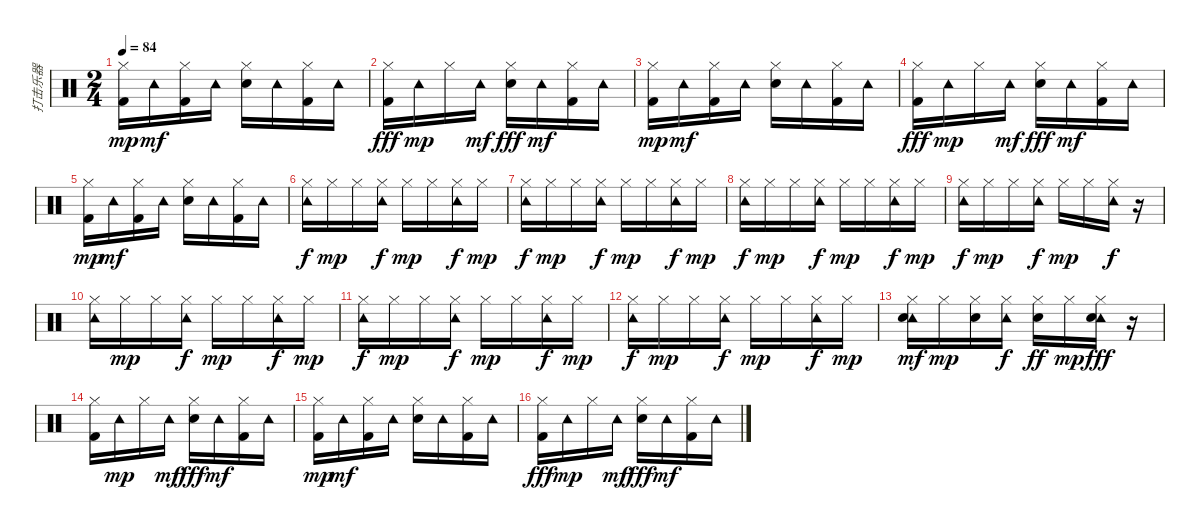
\track ("打击乐器" "打击乐器") {instrument percussion}
\staff {score}
\articulation defaults
\ts (2 4)
\tempo 84
\clef neutral
\ks c
("Hi-Hat (closed)" "Kick (hit) 2").16{dy mp} "Tambourine (hit)".16{dy mf} ("Hi-Hat (closed)" "Kick (hit) 2").16 "Tambourine (hit)".16 ("Hi-Hat (closed)" "Snare (hit) 2").16 "Tambourine (hit)".16 ("Hi-Hat (closed)" "Kick (hit) 2").16 "Tambourine (hit)".16 |
("Hi-Hat (closed)" "Kick (hit) 2").16{dy fff} "Tambourine (hit)".16{dy mp} "Hi-Hat (closed)".16 "Tambourine (hit)".16{dy mf} ("Hi-Hat (closed)" "Snare (hit) 2").16{dy fff} "Tambourine (hit)".16{dy mf} ("Hi-Hat (closed)" "Kick (hit) 2").16 "Tambourine (hit)".16 |
("Hi-Hat (closed)" "Kick (hit) 2").16{dy mp} "Tambourine (hit)".16{dy mf} ("Hi-Hat (closed)" "Kick (hit) 2").16 "Tambourine (hit)".16 ("Hi-Hat (closed)" "Snare (hit) 2").16 "Tambourine (hit)".16 ("Hi-Hat (closed)" "Kick (hit) 2").16 "Tambourine (hit)".16 |
("Hi-Hat (closed)" "Kick (hit) 2").16{dy fff} "Tambourine (hit)".16{dy mp} "Hi-Hat (closed)".16 "Tambourine (hit)".16{dy mf} ("Hi-Hat (closed)" "Snare (hit) 2").16{dy fff} "Tambourine (hit)".16{dy mf} ("Hi-Hat (closed)" "Kick (hit) 2").16 "Tambourine (hit)".16 |
("Hi-Hat (closed)" "Kick (hit) 2").16{dy mp} "Tambourine (hit)".16{dy mf} ("Hi-Hat (closed)" "Kick (hit) 2").16 "Tambourine (hit)".16 ("Hi-Hat (closed)" "Snare (hit) 2").16 "Tambourine (hit)".16 ("Hi-Hat (closed)" "Kick (hit) 2").16 "Tambourine (hit)".16 |
("Tambourine (hit)" "Hi-Hat (closed)").16{dy f} "Hi-Hat (closed)".16{dy mp} "Hi-Hat (closed)".16 ("Tambourine (hit)" "Hi-Hat (closed)").16{dy f} "Hi-Hat (closed)".16{dy mp} "Hi-Hat (closed)".16 ("Tambourine (hit)" "Hi-Hat (closed)").16{dy f} "Hi-Hat (closed)".16{dy mp} |
("Tambourine (hit)" "Hi-Hat (closed)").16{dy f} "Hi-Hat (closed)".16{dy mp} "Hi-Hat (closed)".16 ("Tambourine (hit)" "Hi-Hat (closed)").16{dy f} "Hi-Hat (closed)".16{dy mp} "Hi-Hat (closed)".16 ("Tambourine (hit)" "Hi-Hat (closed)").16{dy f} "Hi-Hat (closed)".16{dy mp} |
("Tambourine (hit)" "Hi-Hat (closed)").16{dy f} "Hi-Hat (closed)".16{dy mp} "Hi-Hat (closed)".16 ("Tambourine (hit)" "Hi-Hat (closed)").16{dy f} "Hi-Hat (closed)".16{dy mp} "Hi-Hat (closed)".16 ("Tambourine (hit)" "Hi-Hat (closed)").16{dy f} "Hi-Hat (closed)".16{dy mp} |
("Tambourine (hit)" "Hi-Hat (closed)").16{dy f} "Hi-Hat (closed)".16{dy mp} "Hi-Hat (closed)".16 ("Tambourine (hit)" "Hi-Hat (closed)").16{dy f} "Hi-Hat (closed)".16{dy mp} "Hi-Hat (closed)".16 ("Tambourine (hit)" "Hi-Hat (closed)").16{dy f} r.16 |
("Tambourine (hit)" "Hi-Hat (closed)").16 "Hi-Hat (closed)".16{dy mp} "Hi-Hat (closed)".16 ("Tambourine (hit)" "Hi-Hat (closed)").16{dy f} "Hi-Hat (closed)".16{dy mp} "Hi-Hat (closed)".16 ("Tambourine (hit)" "Hi-Hat (closed)").16{dy f} "Hi-Hat (closed)".16{dy mp} |
("Tambourine (hit)" "Hi-Hat (closed)").16{dy f} "Hi-Hat (closed)".16{dy mp} "Hi-Hat (closed)".16 ("Tambourine (hit)" "Hi-Hat (closed)").16{dy f} "Hi-Hat (closed)".16{dy mp} "Hi-Hat (closed)".16 ("Tambourine (hit)" "Hi-Hat (closed)").16{dy f} "Hi-Hat (closed)".16{dy mp} |
("Tambourine (hit)" "Hi-Hat (closed)").16{dy f} "Hi-Hat (closed)".16{dy mp} "Hi-Hat (closed)".16 ("Tambourine (hit)" "Hi-Hat (closed)").16{dy f} "Hi-Hat (closed)".16{dy mp} "Hi-Hat (closed)".16 ("Tambourine (hit)" "Hi-Hat (closed)").16{dy f} "Hi-Hat (closed)".16{dy mp} |
("Tambourine (hit)" "Hi-Hat (closed)" "Snare (hit) 2").16{dy mf} "Hi-Hat (closed)".16{dy mp} ("Hi-Hat (closed)" "Snare (hit) 2").16 ("Tambourine (hit)" "Hi-Hat (closed)").16{dy f} ("Hi-Hat (closed)" "Snare (hit) 2").16{dy ff} "Hi-Hat (closed)".16{dy mp} ("Tambourine (hit)" "Hi-Hat (closed)" "Snare (hit) 2").16{dy fff} r.16 |
("Hi-Hat (closed)" "Kick (hit) 2").16 "Tambourine (hit)".16{dy mp} "Hi-Hat (closed)".16 "Tambourine (hit)".16{dy mf} ("Hi-Hat (closed)" "Snare (hit) 2").16{dy fff} "Tambourine (hit)".16{dy mf} ("Hi-Hat (closed)" "Kick (hit) 2").16 "Tambourine (hit)".16 |
("Hi-Hat (closed)" "Kick (hit) 2").16{dy mp} "Tambourine (hit)".16{dy mf} ("Hi-Hat (closed)" "Kick (hit) 2").16 "Tambourine (hit)".16 ("Hi-Hat (closed)" "Snare (hit) 2").16 "Tambourine (hit)".16 ("Hi-Hat (closed)" "Kick (hit) 2").16 "Tambourine (hit)".16 |
("Hi-Hat (closed)" "Kick (hit) 2").16{dy fff} "Tambourine (hit)".16{dy mp} "Hi-Hat (closed)".16 "Tambourine (hit)".16{dy mf} ("Hi-Hat (closed)" "Snare (hit) 2").16{dy fff} "Tambourine (hit)".16{dy mf} ("Hi-Hat (closed)" "Kick (hit) 2").16 "Tambourine (hit)".16
